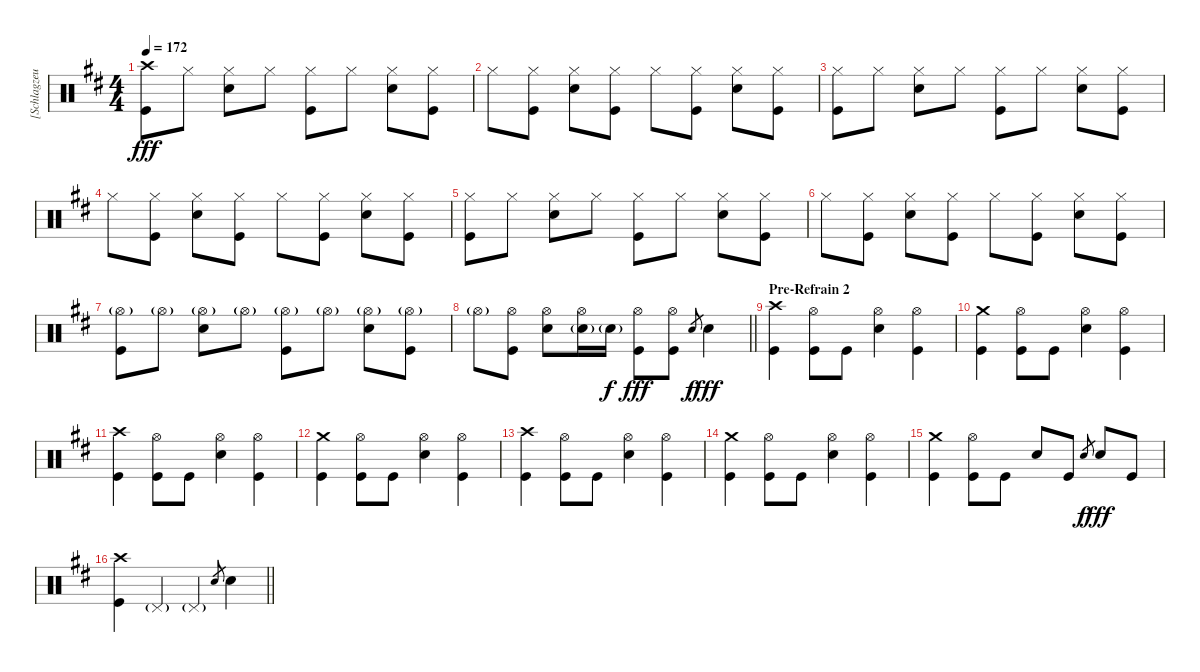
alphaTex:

\track ("[Schlagzeug]" "[Schlagzeu") {instrument percussion}
\staff {score}
\articulation defaults
\ts (4 4)
\tempo 172
\clef neutral
\ks d
("Crash high (hit)" "Kick (hit)").8{dy fff} "Hi-Hat (closed)".8 ("Hi-Hat (closed)" "Electric Snare (hit)").8 "Hi-Hat (closed)".8 ("Hi-Hat (closed)" "Kick (hit)").8 "Hi-Hat (closed)".8 ("Hi-Hat (closed)" "Electric Snare (hit)").8 ("Hi-Hat (closed)" "Kick (hit)").8 |
"Hi-Hat (closed)".8 ("Hi-Hat (closed)" "Kick (hit)").8 ("Hi-Hat (closed)" "Electric Snare (hit)").8 ("Hi-Hat (closed)" "Kick (hit)").8 "Hi-Hat (closed)".8 ("Hi-Hat (closed)" "Kick (hit)").8 ("Hi-Hat (closed)" "Electric Snare (hit)").8 ("Hi-Hat (closed)" "Kick (hit)").8 |
("Hi-Hat (closed)" "Kick (hit)").8 "Hi-Hat (closed)".8 ("Hi-Hat (closed)" "Electric Snare (hit)").8 "Hi-Hat (closed)".8 ("Hi-Hat (closed)" "Kick (hit)").8 "Hi-Hat (closed)".8 ("Hi-Hat (closed)" "Electric Snare (hit)").8 ("Hi-Hat (closed)" "Kick (hit)").8 |
"Hi-Hat (closed)".8 ("Hi-Hat (closed)" "Kick (hit)").8 ("Hi-Hat (closed)" "Electric Snare (hit)").8 ("Hi-Hat (closed)" "Kick (hit)").8 "Hi-Hat (closed)".8 ("Hi-Hat (closed)" "Kick (hit)").8 ("Hi-Hat (closed)" "Electric Snare (hit)").8 ("Hi-Hat (closed)" "Kick (hit)").8 |
("Hi-Hat (closed)" "Kick (hit)").8 "Hi-Hat (closed)".8 ("Hi-Hat (closed)" "Electric Snare (hit)").8 "Hi-Hat (closed)".8 ("Hi-Hat (closed)" "Kick (hit)").8 "Hi-Hat (closed)".8 ("Hi-Hat (closed)" "Electric Snare (hit)").8 ("Hi-Hat (closed)" "Kick (hit)").8 |
"Hi-Hat (closed)".8 ("Hi-Hat (closed)" "Kick (hit)").8 ("Hi-Hat (closed)" "Electric Snare (hit)").8 ("Hi-Hat (closed)" "Kick (hit)").8 "Hi-Hat (closed)".8 ("Hi-Hat (closed)" "Kick (hit)").8 ("Hi-Hat (closed)" "Electric Snare (hit)").8 ("Hi-Hat (closed)" "Kick (hit)").8 |
("Hi-Hat (open)"{g} "Kick (hit)").8 "Hi-Hat (open)"{g}.8 ("Hi-Hat (open)"{g} "Electric Snare (hit)").8 "Hi-Hat (open)"{g}.8 ("Hi-Hat (open)"{g} "Kick (hit)").8 "Hi-Hat (open)"{g}.8 ("Hi-Hat (open)"{g} "Electric Snare (hit)").8 ("Hi-Hat (open)"{g} "Kick (hit)").8 |
\barLineRight lightlight "Hi-Hat (open)"{g}.8
("Hi-Hat (open)" "Kick (hit)").8 ("Hi-Hat (open)" "Electric Snare (hit)").8 ("Hi-Hat (open)" "Electric Snare (hit)"{g}).16 "Electric Snare (hit)"{g}.16{dy f} ("Hi-Hat (open)" "Kick (hit)").8{dy fff} ("Hi-Hat (open)" "Kick (hit)").8 "Electric Snare (hit)".8{gr dy f} "Electric Snare (hit)".4{dy fff} |
\section ("" "Pre-Refrain 2")
("Crash high (hit)" "Kick (hit)").4 ("Hi-Hat (open)" "Kick (hit)").8 "Kick (hit)".8 ("Hi-Hat (open)" "Electric Snare (hit)").4 ("Hi-Hat (open)" "Kick (hit)").4 |
("Crash medium (hit)" "Kick (hit)").4 ("Hi-Hat (open)" "Kick (hit)").8 "Kick (hit)".8 ("Hi-Hat (open)" "Electric Snare (hit)").4 ("Hi-Hat (open)" "Kick (hit)").4 |
("Crash high (hit)" "Kick (hit)").4 ("Hi-Hat (open)" "Kick (hit)").8 "Kick (hit)".8 ("Hi-Hat (open)" "Electric Snare (hit)").4 ("Hi-Hat (open)" "Kick (hit)").4 |
("Crash medium (hit)" "Kick (hit)").4 ("Hi-Hat (open)" "Kick (hit)").8 "Kick (hit)".8 ("Hi-Hat (open)" "Electric Snare (hit)").4 ("Hi-Hat (open)" "Kick (hit)").4 |
("Crash high (hit)" "Kick (hit)").4 ("Hi-Hat (open)" "Kick (hit)").8 "Kick (hit)".8 ("Hi-Hat (open)" "Electric Snare (hit)").4 ("Hi-Hat (open)" "Kick (hit)").4 |
("Crash medium (hit)" "Kick (hit)").4 ("Hi-Hat (open)" "Kick (hit)").8 "Kick (hit)".8 ("Hi-Hat (open)" "Electric Snare (hit)").4 ("Hi-Hat (open)" "Kick (hit)").4 |
("Crash medium (hit)" "Kick (hit)").4 ("Hi-Hat (open)" "Kick (hit)").8 "Kick (hit)".8 "Electric Snare (hit)".8 "Kick (hit)".8 "Electric Snare (hit)".8{gr dy f} "Electric Snare (hit)".8{dy fff} "Kick (hit)".8 |
\barLineRight lightlight
("Crash high (hit)" "Kick (hit)").4 "Pedal Hi-Hat (hit)"{g}.4 "Pedal Hi-Hat (hit)"{g}.4 "Electric Snare (hit)".8{gr} "Electric Snare (hit)".4
